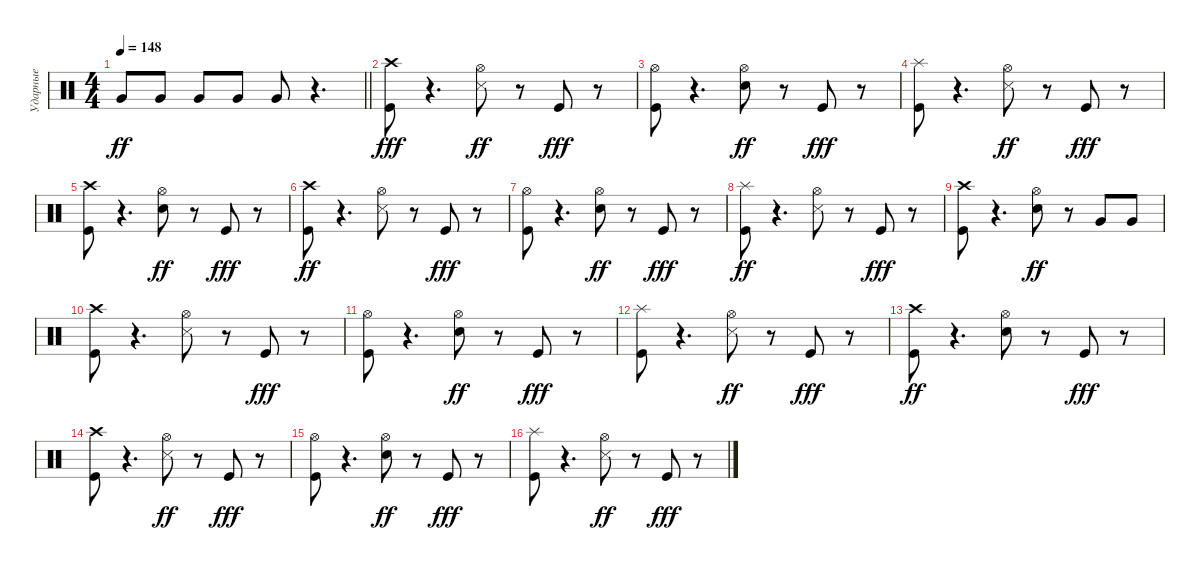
\track ("Ударные" "Ударные") {instrument percussion}
\staff {score}
\articulation defaults
\ts (4 4)
\tempo 148
\clef neutral
\barLineRight lightlight
\ks c "Very Low Tom (hit)".8{dy ff} "Very Low Tom (hit)".8 "Very Low Tom (hit)".8 "Very Low Tom (hit)".8 "Very Low Tom (hit)".8
r.4{d} |
("Crash high (hit)" "Kick (hit)").8{dy fff} r.4{d} ("Hi-Hat (open)" "Snare (side stick) 3").8{dy ff} r.8 "Kick (hit)".8{dy fff} r.8 |
("Hi-Hat (open)" "Kick (hit)").8 r.4{d} ("Hi-Hat (open)" "Snare (hit) 2").8{dy ff} r.8 "Kick (hit)".8{dy fff} r.8 |
("Splash (hit)" "Kick (hit)").8 r.4{d} ("Hi-Hat (open)" "Snare (side stick) 3").8{dy ff} r.8 "Kick (hit)".8{dy fff} r.8 |
("Crash high (hit)" "Kick (hit)").8 r.4{d} ("Hi-Hat (open)" "Snare (hit) 2").8{dy ff} r.8 "Kick (hit)".8{dy fff} r.8 |
("Kick (hit)" "Crash high (hit)").8{dy ff} r.4{d} ("Snare (side stick) 3" "Hi-Hat (open)").8 r.8 "Kick (hit)".8{dy fff} r.8 |
("Hi-Hat (open)" "Kick (hit)").8 r.4{d} ("Hi-Hat (open)" "Snare (hit) 2").8{dy ff} r.8 "Kick (hit)".8{dy fff} r.8 |
("Kick (hit)" "Splash (hit)").8{dy ff} r.4{d} ("Snare (side stick) 3" "Hi-Hat (open)").8 r.8 "Kick (hit)".8{dy fff} r.8 |
("Crash high (hit)" "Kick (hit)").8 r.4{d} ("Snare (hit) 2" "Hi-Hat (open)").8{dy ff} r.8 "Very Low Tom (hit)".8 "Very Low Tom (hit)".8 |
("Kick (hit)" "Crash high (hit)").8 r.4{d} ("Snare (side stick) 3" "Hi-Hat (open)").8 r.8 "Kick (hit)".8{dy fff} r.8 |
("Hi-Hat (open)" "Kick (hit)").8 r.4{d} ("Hi-Hat (open)" "Snare (hit) 2").8{dy ff} r.8 "Kick (hit)".8{dy fff} r.8 |
("Splash (hit)" "Kick (hit)").8 r.4{d} ("Hi-Hat (open)" "Snare (side stick) 3").8{dy ff} r.8 "Kick (hit)".8{dy fff} r.8 |
("Kick (hit)" "Crash high (hit)").8{dy ff} r.4{d} ("Hi-Hat (open)" "Snare (hit) 2").8 r.8 "Kick (hit)".8{dy fff} r.8 |
("Crash high (hit)" "Kick (hit)").8 r.4{d} ("Snare (side stick) 3" "Hi-Hat (open)").8{dy ff} r.8 "Kick (hit)".8{dy fff} r.8 |
("Hi-Hat (open)" "Kick (hit)").8 r.4{d} ("Hi-Hat (open)" "Snare (hit) 2").8{dy ff} r.8 "Kick (hit)".8{dy fff} r.8 |
("Splash (hit)" "Kick (hit)").8 r.4{d} ("Snare (side stick) 3" "Hi-Hat (open)").8{dy ff} r.8 "Kick (hit)".8{dy fff} r.8
